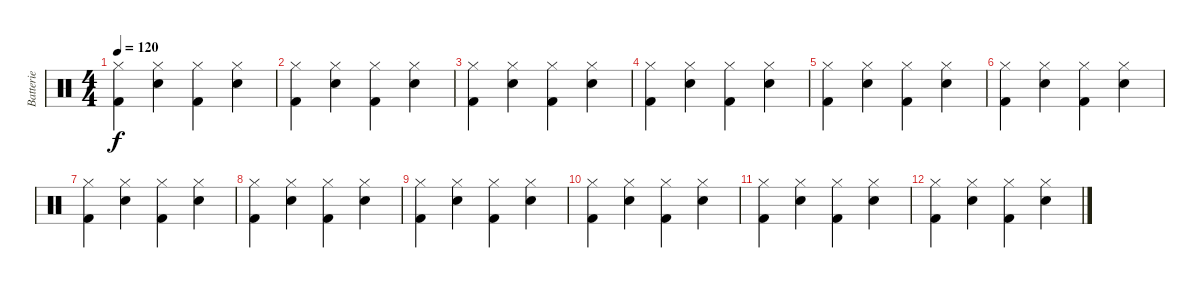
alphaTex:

\track ("Batterie" "Batterie") {instrument percussion}
\staff {score}
\articulation defaults
\ts (4 4)
\tempo 120
\clef neutral
\ks c
("Hi-Hat (closed)" "Kick (hit) 2").4{dy f} ("Hi-Hat (closed)" "Snare (hit) 2").4 ("Hi-Hat (closed)" "Kick (hit) 2").4 ("Hi-Hat (closed)" "Snare (hit) 2").4 |
("Hi-Hat (closed)" "Kick (hit) 2").4 ("Hi-Hat (closed)" "Snare (hit) 2").4 ("Hi-Hat (closed)" "Kick (hit) 2").4 ("Hi-Hat (closed)" "Snare (hit) 2").4 |
("Hi-Hat (closed)" "Kick (hit) 2").4 ("Hi-Hat (closed)" "Snare (hit) 2").4 ("Hi-Hat (closed)" "Kick (hit) 2").4 ("Hi-Hat (closed)" "Snare (hit) 2").4 |
("Hi-Hat (closed)" "Kick (hit) 2").4 ("Hi-Hat (closed)" "Snare (hit) 2").4 ("Hi-Hat (closed)" "Kick (hit) 2").4 ("Hi-Hat (closed)" "Snare (hit) 2").4 |
("Hi-Hat (closed)" "Kick (hit) 2").4 ("Hi-Hat (closed)" "Snare (hit) 2").4 ("Hi-Hat (closed)" "Kick (hit) 2").4 ("Hi-Hat (closed)" "Snare (hit) 2").4 |
("Hi-Hat (closed)" "Kick (hit) 2").4 ("Hi-Hat (closed)" "Snare (hit) 2").4 ("Hi-Hat (closed)" "Kick (hit) 2").4 ("Hi-Hat (closed)" "Snare (hit) 2").4 |
("Hi-Hat (closed)" "Kick (hit) 2").4 ("Hi-Hat (closed)" "Snare (hit) 2").4 ("Hi-Hat (closed)" "Kick (hit) 2").4 ("Hi-Hat (closed)" "Snare (hit) 2").4 |
("Hi-Hat (closed)" "Kick (hit) 2").4 ("Hi-Hat (closed)" "Snare (hit) 2").4 ("Hi-Hat (closed)" "Kick (hit) 2").4 ("Hi-Hat (closed)" "Snare (hit) 2").4 |
("Hi-Hat (closed)" "Kick (hit) 2").4 ("Hi-Hat (closed)" "Snare (hit) 2").4 ("Hi-Hat (closed)" "Kick (hit) 2").4 ("Hi-Hat (closed)" "Snare (hit) 2").4 |
("Hi-Hat (closed)" "Kick (hit) 2").4 ("Hi-Hat (closed)" "Snare (hit) 2").4 ("Hi-Hat (closed)" "Kick (hit) 2").4 ("Hi-Hat (closed)" "Snare (hit) 2").4 |
("Hi-Hat (closed)" "Kick (hit) 2").4 ("Hi-Hat (closed)" "Snare (hit) 2").4 ("Hi-Hat (closed)" "Kick (hit) 2").4 ("Hi-Hat (closed)" "Snare (hit) 2").4 |
("Hi-Hat (closed)" "Kick (hit) 2").4 ("Hi-Hat (closed)" "Snare (hit) 2").4 ("Hi-Hat (closed)" "Kick (hit) 2").4 ("Hi-Hat (closed)" "Snare (hit) 2").4
